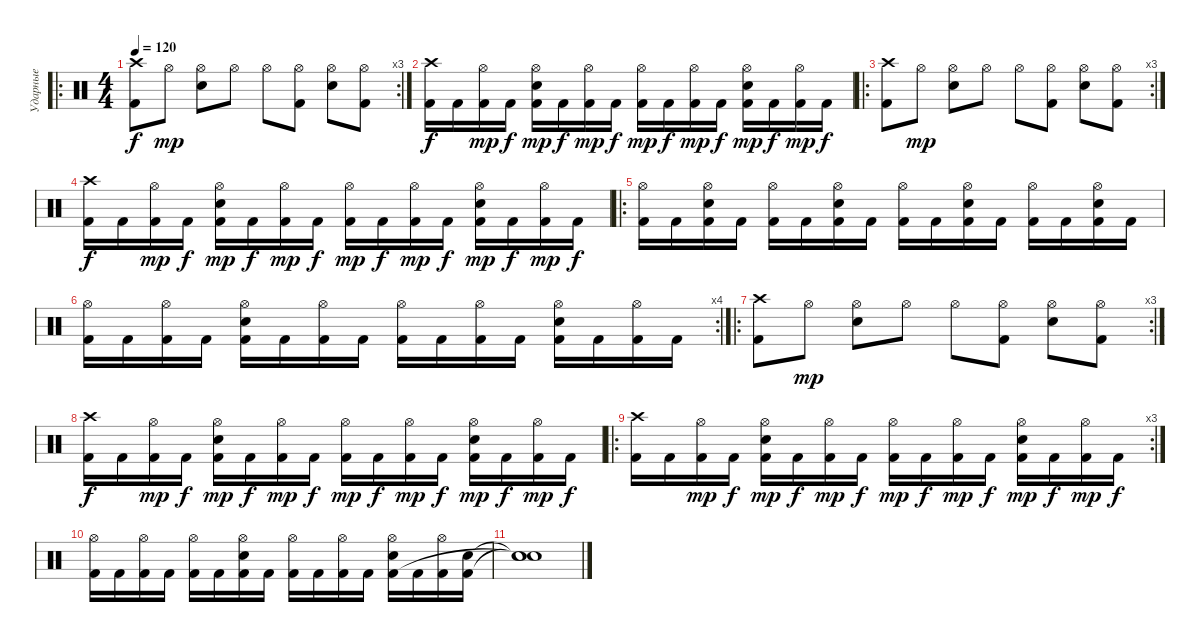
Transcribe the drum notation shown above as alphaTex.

\track ("Ударные" "Ударные") {instrument percussion}
\staff {score}
\articulation defaults
\ro
\rc 3
\ts (4 4)
\tempo 120
\clef neutral
\ks c
("Crash high (hit)" "Kick (hit) 2").8{dy f} "Hi-Hat (open)".8{dy mp} ("Hi-Hat (open)" "Electric Snare (hit)").8 "Hi-Hat (open)".8 "Hi-Hat (open)".8 ("Hi-Hat (open)" "Kick (hit) 2").8 ("Hi-Hat (open)" "Electric Snare (hit)").8 ("Hi-Hat (open)" "Kick (hit) 2").8 |
("Crash high (hit)" "Kick (hit) 2").16{dy f} "Kick (hit) 2".16 ("Hi-Hat (open)" "Kick (hit) 2").16{dy mp} "Kick (hit) 2".16{dy f} ("Hi-Hat (open)" "Electric Snare (hit)" "Kick (hit) 2").16{dy mp} "Kick (hit) 2".16{dy f} ("Hi-Hat (open)" "Kick (hit) 2").16{dy mp} "Kick (hit) 2".16{dy f} ("Hi-Hat (open)" "Kick (hit) 2").16{dy mp} "Kick (hit) 2".16{dy f} ("Hi-Hat (open)" "Kick (hit) 2").16{dy mp} "Kick (hit) 2".16{dy f} ("Hi-Hat (open)" "Electric Snare (hit)" "Kick (hit) 2").16{dy mp} "Kick (hit) 2".16{dy f} ("Hi-Hat (open)" "Kick (hit) 2").16{dy mp} "Kick (hit) 2".16{dy f} |
\ro
\rc 3
("Crash high (hit)" "Kick (hit) 2").8 "Hi-Hat (open)".8{dy mp} ("Hi-Hat (open)" "Electric Snare (hit)").8 "Hi-Hat (open)".8 "Hi-Hat (open)".8 ("Hi-Hat (open)" "Kick (hit) 2").8 ("Hi-Hat (open)" "Electric Snare (hit)").8 ("Hi-Hat (open)" "Kick (hit) 2").8 |
("Crash high (hit)" "Kick (hit) 2").16{dy f} "Kick (hit) 2".16 ("Hi-Hat (open)" "Kick (hit) 2").16{dy mp} "Kick (hit) 2".16{dy f} ("Hi-Hat (open)" "Electric Snare (hit)" "Kick (hit) 2").16{dy mp} "Kick (hit) 2".16{dy f} ("Hi-Hat (open)" "Kick (hit) 2").16{dy mp} "Kick (hit) 2".16{dy f} ("Hi-Hat (open)" "Kick (hit) 2").16{dy mp} "Kick (hit) 2".16{dy f} ("Hi-Hat (open)" "Kick (hit) 2").16{dy mp} "Kick (hit) 2".16{dy f} ("Hi-Hat (open)" "Electric Snare (hit)" "Kick (hit) 2").16{dy mp} "Kick (hit) 2".16{dy f} ("Hi-Hat (open)" "Kick (hit) 2").16{dy mp} "Kick (hit) 2".16{dy f} |
\ro
("Hi-Hat (open)" "Kick (hit) 2").16 "Kick (hit) 2".16 ("Hi-Hat (open)" "Electric Snare (hit)" "Kick (hit) 2").16 "Kick (hit) 2".16 ("Hi-Hat (open)" "Kick (hit) 2").16 "Kick (hit) 2".16 ("Hi-Hat (open)" "Electric Snare (hit)" "Kick (hit) 2").16 "Kick (hit) 2".16 ("Hi-Hat (open)" "Kick (hit) 2").16 "Kick (hit) 2".16 ("Hi-Hat (open)" "Electric Snare (hit)" "Kick (hit) 2").16 "Kick (hit) 2".16 ("Hi-Hat (open)" "Kick (hit) 2").16 "Kick (hit) 2".16 ("Hi-Hat (open)" "Electric Snare (hit)" "Kick (hit) 2").16 "Kick (hit) 2".16 |
\rc 4
("Hi-Hat (open)" "Kick (hit) 2").16 "Kick (hit) 2".16 ("Hi-Hat (open)" "Kick (hit) 2").16 "Kick (hit) 2".16 ("Hi-Hat (open)" "Electric Snare (hit)" "Kick (hit) 2").16 "Kick (hit) 2".16 ("Hi-Hat (open)" "Kick (hit) 2").16 "Kick (hit) 2".16 ("Hi-Hat (open)" "Kick (hit) 2").16 "Kick (hit) 2".16 ("Hi-Hat (open)" "Kick (hit) 2").16 "Kick (hit) 2".16 ("Hi-Hat (open)" "Electric Snare (hit)" "Kick (hit) 2").16 "Kick (hit) 2".16 ("Hi-Hat (open)" "Kick (hit) 2").16 "Kick (hit) 2".16 |
\ro
\rc 3
("Crash high (hit)" "Kick (hit) 2").8 "Hi-Hat (open)".8{dy mp} ("Hi-Hat (open)" "Electric Snare (hit)").8 "Hi-Hat (open)".8 "Hi-Hat (open)".8 ("Hi-Hat (open)" "Kick (hit) 2").8 ("Hi-Hat (open)" "Electric Snare (hit)").8 ("Hi-Hat (open)" "Kick (hit) 2").8 |
("Crash high (hit)" "Kick (hit) 2").16{dy f} "Kick (hit) 2".16 ("Hi-Hat (open)" "Kick (hit) 2").16{dy mp} "Kick (hit) 2".16{dy f} ("Hi-Hat (open)" "Electric Snare (hit)" "Kick (hit) 2").16{dy mp} "Kick (hit) 2".16{dy f} ("Hi-Hat (open)" "Kick (hit) 2").16{dy mp} "Kick (hit) 2".16{dy f} ("Hi-Hat (open)" "Kick (hit) 2").16{dy mp} "Kick (hit) 2".16{dy f} ("Hi-Hat (open)" "Kick (hit) 2").16{dy mp} "Kick (hit) 2".16{dy f} ("Hi-Hat (open)" "Electric Snare (hit)" "Kick (hit) 2").16{dy mp} "Kick (hit) 2".16{dy f} ("Hi-Hat (open)" "Kick (hit) 2").16{dy mp} "Kick (hit) 2".16{dy f} |
\ro
\rc 3
("Crash high (hit)" "Kick (hit) 2").16 "Kick (hit) 2".16 ("Hi-Hat (open)" "Kick (hit) 2").16{dy mp} "Kick (hit) 2".16{dy f} ("Hi-Hat (open)" "Electric Snare (hit)" "Kick (hit) 2").16{dy mp} "Kick (hit) 2".16{dy f} ("Hi-Hat (open)" "Kick (hit) 2").16{dy mp} "Kick (hit) 2".16{dy f} ("Hi-Hat (open)" "Kick (hit) 2").16{dy mp} "Kick (hit) 2".16{dy f} ("Hi-Hat (open)" "Kick (hit) 2").16{dy mp} "Kick (hit) 2".16{dy f} ("Hi-Hat (open)" "Electric Snare (hit)" "Kick (hit) 2").16{dy mp} "Kick (hit) 2".16{dy f} ("Hi-Hat (open)" "Kick (hit) 2").16{dy mp} "Kick (hit) 2".16{dy f} |
("Hi-Hat (open)" "Kick (hit) 2").16 "Kick (hit) 2".16 ("Hi-Hat (open)" "Kick (hit) 2").16 "Kick (hit) 2".16 ("Hi-Hat (open)" "Kick (hit) 2").16 "Kick (hit) 2".16 ("Hi-Hat (open)" "Electric Snare (hit)" "Kick (hit) 2").16 "Kick (hit) 2".16 ("Hi-Hat (open)" "Kick (hit) 2").16 "Kick (hit) 2".16 ("Hi-Hat (open)" "Kick (hit) 2").16 "Kick (hit) 2".16 ("Hi-Hat (open)" "Electric Snare (hit)" "Kick (hit) 2").16 "Kick (hit) 2".16 ("Hi-Hat (open)" "Kick (hit) 2").16 ("Electric Snare (hit)" "Kick (hit) 2").16 |
("Snare (hit)"{t} "Snare (hit)"{t} "Snare (hit)"{t}).1
